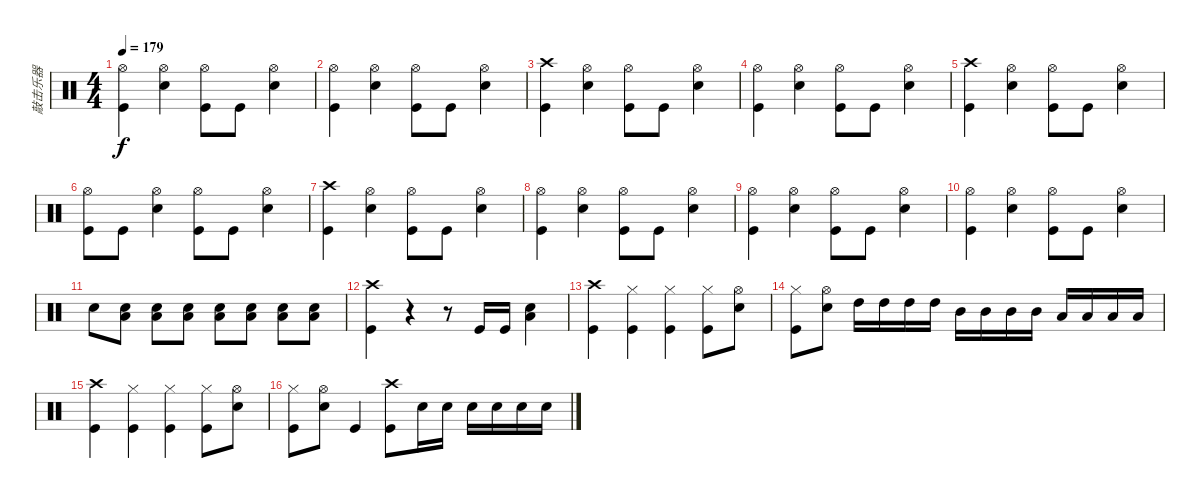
\track ("敲击乐器" "敲击乐器") {instrument percussion}
\staff {score}
\articulation defaults
\ts (4 4)
\tempo 179
\clef neutral
\ks c
("Hi-Hat (open)" "Kick (hit)").4{dy f} ("Hi-Hat (open)" "Electric Snare (hit)").4 ("Hi-Hat (open)" "Kick (hit)").8 "Kick (hit)".8 ("Hi-Hat (open)" "Electric Snare (hit)").4 |
("Hi-Hat (open)" "Kick (hit)").4 ("Hi-Hat (open)" "Electric Snare (hit)").4 ("Hi-Hat (open)" "Kick (hit)").8 "Kick (hit)".8 ("Hi-Hat (open)" "Electric Snare (hit)").4 |
("Crash high (hit)" "Kick (hit)").4 ("Hi-Hat (open)" "Electric Snare (hit)").4 ("Hi-Hat (open)" "Kick (hit)").8 "Kick (hit)".8 ("Hi-Hat (open)" "Electric Snare (hit)").4 |
("Hi-Hat (open)" "Kick (hit)").4 ("Hi-Hat (open)" "Electric Snare (hit)").4 ("Hi-Hat (open)" "Kick (hit)").8 "Kick (hit)".8 ("Hi-Hat (open)" "Electric Snare (hit)").4 |
("Crash high (hit)" "Kick (hit)").4 ("Hi-Hat (open)" "Electric Snare (hit)").4 ("Hi-Hat (open)" "Kick (hit)").8 "Kick (hit)".8 ("Hi-Hat (open)" "Electric Snare (hit)").4 |
("Hi-Hat (open)" "Kick (hit)").8 "Kick (hit)".8 ("Hi-Hat (open)" "Electric Snare (hit)").4 ("Hi-Hat (open)" "Kick (hit)").8 "Kick (hit)".8 ("Hi-Hat (open)" "Electric Snare (hit)").4 |
("Crash high (hit)" "Kick (hit)").4 ("Hi-Hat (open)" "Electric Snare (hit)").4 ("Hi-Hat (open)" "Kick (hit)").8 "Kick (hit)".8 ("Hi-Hat (open)" "Electric Snare (hit)").4 |
("Hi-Hat (open)" "Kick (hit)").4 ("Hi-Hat (open)" "Electric Snare (hit)").4 ("Hi-Hat (open)" "Kick (hit)").8 "Kick (hit)".8 ("Hi-Hat (open)" "Electric Snare (hit)").4 |
("Hi-Hat (open)" "Kick (hit)").4 ("Hi-Hat (open)" "Electric Snare (hit)").4 ("Hi-Hat (open)" "Kick (hit)").8 "Kick (hit)".8 ("Hi-Hat (open)" "Electric Snare (hit)").4 |
("Hi-Hat (open)" "Kick (hit)").4 ("Hi-Hat (open)" "Electric Snare (hit)").4 ("Hi-Hat (open)" "Kick (hit)").8 "Kick (hit)".8 ("Hi-Hat (open)" "Electric Snare (hit)").4 |
"Electric Snare (hit)".8 ("Electric Snare (hit)" "Low Floor Tom (hit)").8 ("Electric Snare (hit)" "Low Floor Tom (hit)").8 ("Electric Snare (hit)" "Low Floor Tom (hit)").8 ("Electric Snare (hit)" "Low Floor Tom (hit)").8 ("Electric Snare (hit)" "Low Floor Tom (hit)").8 ("Electric Snare (hit)" "Low Floor Tom (hit)").8 ("Electric Snare (hit)" "Low Floor Tom (hit)").8 |
("Crash high (hit)" "Kick (hit)").4 r.4 r.8 "Kick (hit)".16 "Kick (hit)".16 ("Electric Snare (hit)" "Low Floor Tom (hit)").4 |
("Crash high (hit)" "Kick (hit)").4 ("Hi-Hat (closed)" "Kick (hit)").4 ("Hi-Hat (closed)" "Kick (hit)").4 ("Hi-Hat (closed)" "Kick (hit)").8 ("Hi-Hat (open)" "Electric Snare (hit)").8 |
("Hi-Hat (closed)" "Kick (hit)").8 ("Hi-Hat (open)" "Electric Snare (hit)").8 "High Tom (hit)".16 "High Tom (hit)".16 "High Tom (hit)".16 "High Tom (hit)".16 "Mid Tom (hit)".16 "Mid Tom (hit)".16 "Mid Tom (hit)".16 "Mid Tom (hit)".16 "Low Tom (hit)".16 "Low Tom (hit)".16 "Low Tom (hit)".16 "Low Tom (hit)".16 |
("Crash high (hit)" "Kick (hit)").4 ("Hi-Hat (closed)" "Kick (hit)").4 ("Hi-Hat (closed)" "Kick (hit)").4 ("Hi-Hat (closed)" "Kick (hit)").8 ("Hi-Hat (open)" "Electric Snare (hit)").8 |
("Hi-Hat (closed)" "Kick (hit)").8 ("Hi-Hat (open)" "Electric Snare (hit)").8 "Kick (hit)".4 ("Crash high (hit)" "Kick (hit)").8 "Electric Snare (hit)".16 "Electric Snare (hit)".16 "Electric Snare (hit)".16 "Electric Snare (hit)".16 "Electric Snare (hit)".16 "Electric Snare (hit)".16
